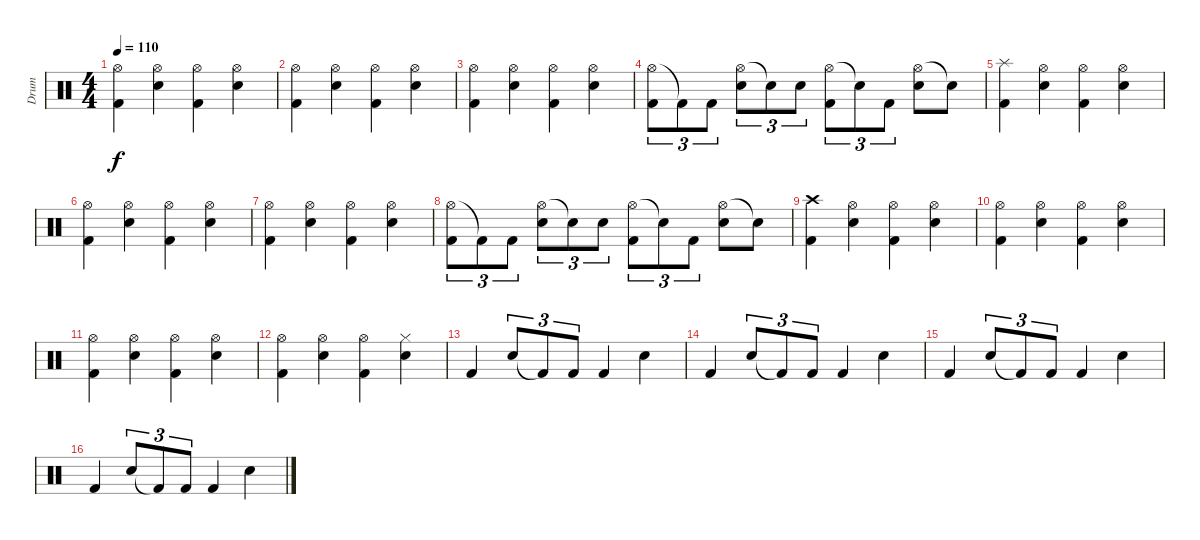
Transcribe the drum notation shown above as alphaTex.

\track ("Drum" "Drum") {instrument percussion}
\staff {score}
\articulation defaults
\ts (4 4)
\tempo 110
\clef neutral
\ks c
("Hi-Hat (open)" "Kick (hit) 2").4{dy f} ("Hi-Hat (open)" "Electric Snare (hit)").4 ("Hi-Hat (open)" "Kick (hit) 2").4 ("Hi-Hat (open)" "Electric Snare (hit)").4 |
("Hi-Hat (open)" "Kick (hit) 2").4 ("Hi-Hat (open)" "Electric Snare (hit)").4 ("Hi-Hat (open)" "Kick (hit) 2").4 ("Hi-Hat (open)" "Electric Snare (hit)").4 |
("Hi-Hat (open)" "Kick (hit) 2").4 ("Hi-Hat (open)" "Electric Snare (hit)").4 ("Hi-Hat (open)" "Kick (hit) 2").4 ("Hi-Hat (open)" "Electric Snare (hit)").4 |
("Hi-Hat (open)" "Kick (hit) 2").8{tu (3 2)} "Kick (hit) 2"{t}.8{tu (3 2)} "Kick (hit) 2".8{tu (3 2)} ("Hi-Hat (open)" "Electric Snare (hit)").8{tu (3 2)} "Snare (hit)"{t}.8{tu (3 2)} "Electric Snare (hit)".8{tu (3 2)} ("Hi-Hat (open)" "Kick (hit) 2").8{tu (3 2)} "Snare (hit)"{t}.8{tu (3 2)} "Kick (hit) 2".8{tu (3 2)} ("Hi-Hat (open)" "Electric Snare (hit)").8 "Snare (hit)"{t}.8 |
("Splash (hit)" "Kick (hit) 2").4 ("Hi-Hat (open)" "Electric Snare (hit)").4 ("Hi-Hat (open)" "Kick (hit) 2").4 ("Hi-Hat (open)" "Electric Snare (hit)").4 |
("Hi-Hat (open)" "Kick (hit) 2").4 ("Hi-Hat (open)" "Electric Snare (hit)").4 ("Hi-Hat (open)" "Kick (hit) 2").4 ("Hi-Hat (open)" "Electric Snare (hit)").4 |
("Hi-Hat (open)" "Kick (hit) 2").4 ("Hi-Hat (open)" "Electric Snare (hit)").4 ("Hi-Hat (open)" "Kick (hit) 2").4 ("Hi-Hat (open)" "Electric Snare (hit)").4 |
("Hi-Hat (open)" "Kick (hit) 2").8{tu (3 2)} "Kick (hit) 2"{t}.8{tu (3 2)} "Kick (hit) 2".8{tu (3 2)} ("Hi-Hat (open)" "Electric Snare (hit)").8{tu (3 2)} "Snare (hit)"{t}.8{tu (3 2)} "Electric Snare (hit)".8{tu (3 2)} ("Hi-Hat (open)" "Kick (hit) 2").8{tu (3 2)} "Snare (hit)"{t}.8{tu (3 2)} "Kick (hit) 2".8{tu (3 2)} ("Hi-Hat (open)" "Electric Snare (hit)").8 "Snare (hit)"{t}.8 |
("Crash high (hit)" "Kick (hit) 2").4 ("Hi-Hat (open)" "Electric Snare (hit)").4 ("Hi-Hat (open)" "Kick (hit) 2").4 ("Hi-Hat (open)" "Electric Snare (hit)").4 |
("Hi-Hat (open)" "Kick (hit) 2").4 ("Hi-Hat (open)" "Electric Snare (hit)").4 ("Hi-Hat (open)" "Kick (hit) 2").4 ("Hi-Hat (open)" "Electric Snare (hit)").4 |
("Hi-Hat (open)" "Kick (hit) 2").4 ("Hi-Hat (open)" "Electric Snare (hit)").4 ("Hi-Hat (open)" "Kick (hit) 2").4 ("Hi-Hat (open)" "Electric Snare (hit)").4 |
("Hi-Hat (open)" "Kick (hit) 2").4 ("Hi-Hat (open)" "Electric Snare (hit)").4 ("Hi-Hat (open)" "Kick (hit) 2").4 ("Hi-Hat (closed)" "Electric Snare (hit)").4 |
"Kick (hit) 2".4 "Electric Snare (hit)".8{tu (3 2)} "Kick (hit) 2"{t}.8{tu (3 2)} "Kick (hit) 2".8{tu (3 2)} "Kick (hit) 2".4 "Electric Snare (hit)".4 |
"Kick (hit) 2".4 "Electric Snare (hit)".8{tu (3 2)} "Kick (hit) 2"{t}.8{tu (3 2)} "Kick (hit) 2".8{tu (3 2)} "Kick (hit) 2".4 "Electric Snare (hit)".4 |
"Kick (hit) 2".4 "Electric Snare (hit)".8{tu (3 2)} "Kick (hit) 2"{t}.8{tu (3 2)} "Kick (hit) 2".8{tu (3 2)} "Kick (hit) 2".4 "Electric Snare (hit)".4 |
"Kick (hit) 2".4 "Electric Snare (hit)".8{tu (3 2)} "Kick (hit) 2"{t}.8{tu (3 2)} "Kick (hit) 2".8{tu (3 2)} "Kick (hit) 2".4 "Electric Snare (hit)".4
